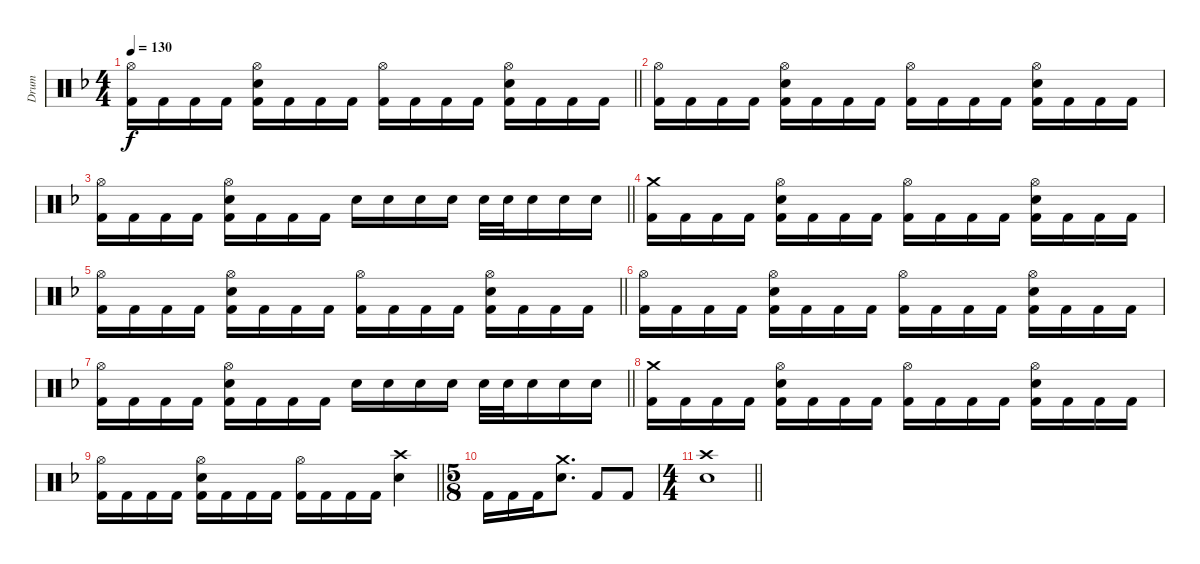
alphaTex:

\track ("Drum" "Drum") {instrument percussion}
\staff {score}
\articulation defaults
\ts (4 4)
\tempo 130
\clef neutral
\barLineRight lightlight
\ks f
("Hi-Hat (open)" "Kick (hit) 2").16{dy f} "Kick (hit) 2".16 "Kick (hit) 2".16 "Kick (hit) 2".16 ("Hi-Hat (open)" "Electric Snare (hit)" "Kick (hit) 2").16 "Kick (hit) 2".16 "Kick (hit) 2".16 "Kick (hit) 2".16 ("Hi-Hat (open)" "Kick (hit) 2").16 "Kick (hit) 2".16 "Kick (hit) 2".16 "Kick (hit) 2".16 ("Hi-Hat (open)" "Electric Snare (hit)" "Kick (hit) 2").16 "Kick (hit) 2".16 "Kick (hit) 2".16 "Kick (hit) 2".16 |
("Hi-Hat (open)" "Kick (hit) 2").16 "Kick (hit) 2".16 "Kick (hit) 2".16 "Kick (hit) 2".16 ("Hi-Hat (open)" "Electric Snare (hit)" "Kick (hit) 2").16 "Kick (hit) 2".16 "Kick (hit) 2".16 "Kick (hit) 2".16 ("Hi-Hat (open)" "Kick (hit) 2").16 "Kick (hit) 2".16 "Kick (hit) 2".16 "Kick (hit) 2".16 ("Hi-Hat (open)" "Electric Snare (hit)" "Kick (hit) 2").16 "Kick (hit) 2".16 "Kick (hit) 2".16 "Kick (hit) 2".16 |
\barLineRight lightlight
("Hi-Hat (open)" "Kick (hit) 2").16 "Kick (hit) 2".16 "Kick (hit) 2".16 "Kick (hit) 2".16 ("Hi-Hat (open)" "Electric Snare (hit)" "Kick (hit) 2").16 "Kick (hit) 2".16 "Kick (hit) 2".16 "Kick (hit) 2".16 "Electric Snare (hit)".16 "Electric Snare (hit)".16 "Electric Snare (hit)".16 "Electric Snare (hit)".16 "Electric Snare (hit)".32 "Electric Snare (hit)".32 "Electric Snare (hit)".16 "Electric Snare (hit)".16 "Electric Snare (hit)".16 |
("Crash medium (hit)" "Kick (hit) 2").16 "Kick (hit) 2".16 "Kick (hit) 2".16 "Kick (hit) 2".16 ("Hi-Hat (open)" "Electric Snare (hit)" "Kick (hit) 2").16 "Kick (hit) 2".16 "Kick (hit) 2".16 "Kick (hit) 2".16 ("Hi-Hat (open)" "Kick (hit) 2").16 "Kick (hit) 2".16 "Kick (hit) 2".16 "Kick (hit) 2".16 ("Hi-Hat (open)" "Electric Snare (hit)" "Kick (hit) 2").16 "Kick (hit) 2".16 "Kick (hit) 2".16 "Kick (hit) 2".16 |
\barLineRight lightlight
("Hi-Hat (open)" "Kick (hit) 2").16 "Kick (hit) 2".16 "Kick (hit) 2".16 "Kick (hit) 2".16 ("Hi-Hat (open)" "Electric Snare (hit)" "Kick (hit) 2").16 "Kick (hit) 2".16 "Kick (hit) 2".16 "Kick (hit) 2".16 ("Hi-Hat (open)" "Kick (hit) 2").16 "Kick (hit) 2".16 "Kick (hit) 2".16 "Kick (hit) 2".16 ("Hi-Hat (open)" "Electric Snare (hit)" "Kick (hit) 2").16 "Kick (hit) 2".16 "Kick (hit) 2".16 "Kick (hit) 2".16 |
("Hi-Hat (open)" "Kick (hit) 2").16 "Kick (hit) 2".16 "Kick (hit) 2".16 "Kick (hit) 2".16 ("Hi-Hat (open)" "Electric Snare (hit)" "Kick (hit) 2").16 "Kick (hit) 2".16 "Kick (hit) 2".16 "Kick (hit) 2".16 ("Hi-Hat (open)" "Kick (hit) 2").16 "Kick (hit) 2".16 "Kick (hit) 2".16 "Kick (hit) 2".16 ("Hi-Hat (open)" "Electric Snare (hit)" "Kick (hit) 2").16 "Kick (hit) 2".16 "Kick (hit) 2".16 "Kick (hit) 2".16 |
\barLineRight lightlight
("Hi-Hat (open)" "Kick (hit) 2").16 "Kick (hit) 2".16 "Kick (hit) 2".16 "Kick (hit) 2".16 ("Hi-Hat (open)" "Electric Snare (hit)" "Kick (hit) 2").16 "Kick (hit) 2".16 "Kick (hit) 2".16 "Kick (hit) 2".16 "Electric Snare (hit)".16 "Electric Snare (hit)".16 "Electric Snare (hit)".16 "Electric Snare (hit)".16 "Electric Snare (hit)".32 "Electric Snare (hit)".32 "Electric Snare (hit)".16 "Electric Snare (hit)".16 "Electric Snare (hit)".16 |
("Crash medium (hit)" "Kick (hit) 2").16 "Kick (hit) 2".16 "Kick (hit) 2".16 "Kick (hit) 2".16 ("Hi-Hat (open)" "Electric Snare (hit)" "Kick (hit) 2").16 "Kick (hit) 2".16 "Kick (hit) 2".16 "Kick (hit) 2".16 ("Hi-Hat (open)" "Kick (hit) 2").16 "Kick (hit) 2".16 "Kick (hit) 2".16 "Kick (hit) 2".16 ("Hi-Hat (open)" "Electric Snare (hit)" "Kick (hit) 2").16 "Kick (hit) 2".16 "Kick (hit) 2".16 "Kick (hit) 2".16 |
\barLineRight lightlight
("Hi-Hat (open)" "Kick (hit) 2").16 "Kick (hit) 2".16 "Kick (hit) 2".16 "Kick (hit) 2".16 ("Hi-Hat (open)" "Electric Snare (hit)" "Kick (hit) 2").16 "Kick (hit) 2".16 "Kick (hit) 2".16 "Kick (hit) 2".16 ("Hi-Hat (open)" "Kick (hit) 2").16 "Kick (hit) 2".16 "Kick (hit) 2".16 "Kick (hit) 2".16 ("Crash high (hit)" "Electric Snare (hit)").4 |
\ts (5 8)
"Kick (hit) 2".16 "Kick (hit) 2".16 "Kick (hit) 2".16 ("Crash medium (hit)" "Electric Snare (hit)").8{d} "Kick (hit) 2".8 "Kick (hit) 2".8 |
\ts (4 4)
\barLineRight lightlight
("Crash high (hit)" "Electric Snare (hit)").1
